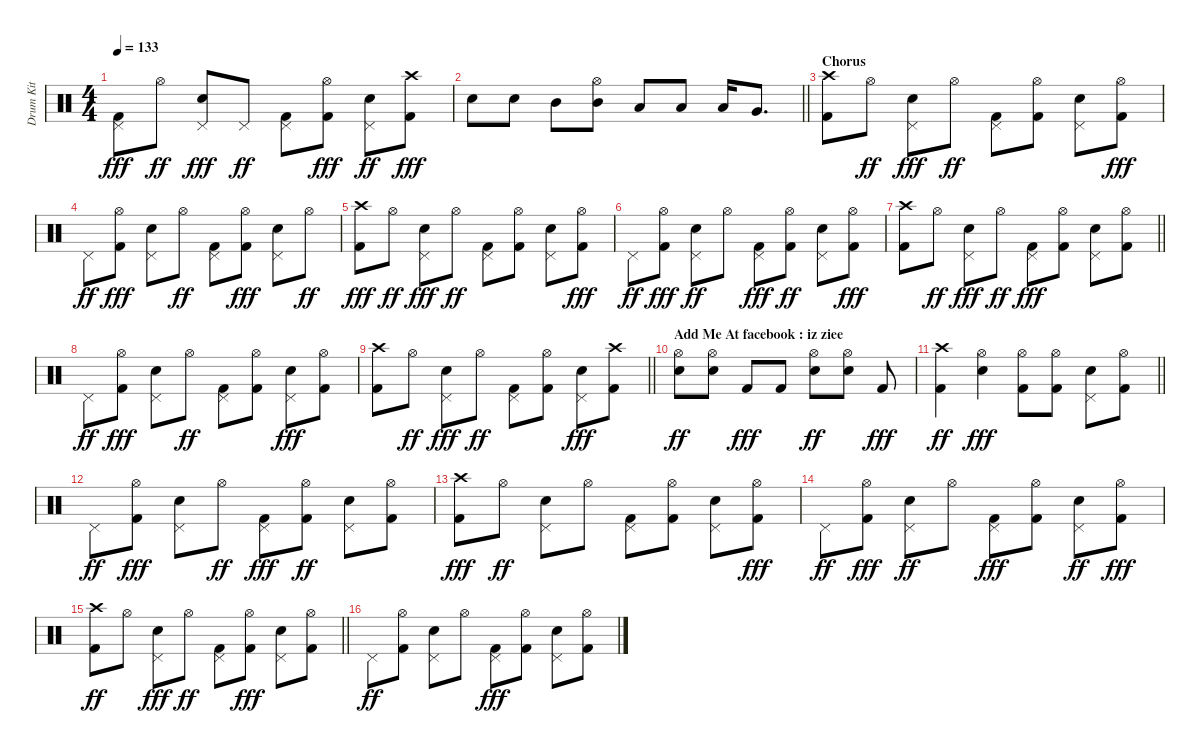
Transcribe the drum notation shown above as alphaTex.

\track ("Drum Kit" "Drum Kit") {instrument percussion}
\staff {score}
\articulation defaults
\ts (4 4)
\tempo 133
\clef neutral
\ks c
("Pedal Hi-Hat (hit)" "Kick (hit) 2").8{dy fff} "Hi-Hat (open)".8{dy ff} ("Pedal Hi-Hat (hit)" "Electric Snare (hit)").8{dy fff} "Pedal Hi-Hat (hit)".8{dy ff} ("Kick (hit) 2" "Pedal Hi-Hat (hit)").8 ("Hi-Hat (open)" "Kick (hit) 2").8{dy fff} ("Electric Snare (hit)" "Pedal Hi-Hat (hit)").8{dy ff} ("Crash high (hit)" "Kick (hit) 2").8{dy fff} |
\barLineRight lightlight "Electric Snare (hit)".8 "Electric Snare (hit)".8 "Mid Tom (hit)".8
("Hi-Hat (open)" "Mid Tom (hit)").8 "Low Tom (hit)".8 "Low Tom (hit)".8 "Low Tom (hit)".16 "Very Low Tom (hit)".8{d} |
\section ("" "Chorus")
("Crash high (hit)" "Kick (hit) 2").8 "Hi-Hat (open)".8{dy ff} ("Pedal Hi-Hat (hit)" "Electric Snare (hit)").8{dy fff} "Hi-Hat (open)".8{dy ff} ("Kick (hit) 2" "Pedal Hi-Hat (hit)").8 ("Kick (hit) 2" "Hi-Hat (open)").8 ("Electric Snare (hit)" "Pedal Hi-Hat (hit)").8 ("Hi-Hat (open)" "Kick (hit) 2").8{dy fff} |
"Pedal Hi-Hat (hit)".8{dy ff} ("Hi-Hat (open)" "Kick (hit) 2").8{dy fff} ("Pedal Hi-Hat (hit)" "Electric Snare (hit)").8 "Hi-Hat (open)".8{dy ff} ("Kick (hit) 2" "Pedal Hi-Hat (hit)").8 ("Hi-Hat (open)" "Kick (hit) 2").8{dy fff} ("Pedal Hi-Hat (hit)" "Electric Snare (hit)").8 "Hi-Hat (open)".8{dy ff} |
("Crash high (hit)" "Kick (hit) 2").8{dy fff} "Hi-Hat (open)".8{dy ff} ("Pedal Hi-Hat (hit)" "Electric Snare (hit)").8{dy fff} "Hi-Hat (open)".8{dy ff} ("Kick (hit) 2" "Pedal Hi-Hat (hit)").8 ("Kick (hit) 2" "Hi-Hat (open)").8 ("Electric Snare (hit)" "Pedal Hi-Hat (hit)").8 ("Hi-Hat (open)" "Kick (hit) 2").8{dy fff} |
"Pedal Hi-Hat (hit)".8{dy ff} ("Hi-Hat (open)" "Kick (hit) 2").8{dy fff} ("Electric Snare (hit)" "Pedal Hi-Hat (hit)").8{dy ff} "Hi-Hat (open)".8 ("Pedal Hi-Hat (hit)" "Kick (hit) 2").8{dy fff} ("Kick (hit) 2" "Hi-Hat (open)").8{dy ff} ("Electric Snare (hit)" "Pedal Hi-Hat (hit)").8 ("Hi-Hat (open)" "Kick (hit) 2").8{dy fff} |
\barLineRight lightlight
("Crash high (hit)" "Kick (hit) 2").8 "Hi-Hat (open)".8{dy ff} ("Pedal Hi-Hat (hit)" "Electric Snare (hit)").8{dy fff} "Hi-Hat (open)".8{dy ff} ("Pedal Hi-Hat (hit)" "Kick (hit) 2").8{dy fff} ("Hi-Hat (open)" "Kick (hit) 2").8 ("Pedal Hi-Hat (hit)" "Electric Snare (hit)").8 ("Hi-Hat (open)" "Kick (hit) 2").8 |
"Pedal Hi-Hat (hit)".8{dy ff} ("Hi-Hat (open)" "Kick (hit) 2").8{dy fff} ("Pedal Hi-Hat (hit)" "Electric Snare (hit)").8 "Hi-Hat (open)".8{dy ff} ("Kick (hit) 2" "Pedal Hi-Hat (hit)").8 ("Kick (hit) 2" "Hi-Hat (open)").8 ("Pedal Hi-Hat (hit)" "Electric Snare (hit)").8{dy fff} ("Hi-Hat (open)" "Kick (hit) 2").8 |
\barLineRight lightlight
("Crash high (hit)" "Kick (hit) 2").8 "Hi-Hat (open)".8{dy ff} ("Pedal Hi-Hat (hit)" "Electric Snare (hit)").8{dy fff} "Hi-Hat (open)".8{dy ff} ("Kick (hit) 2" "Pedal Hi-Hat (hit)").8 ("Kick (hit) 2" "Hi-Hat (open)").8 ("Pedal Hi-Hat (hit)" "Electric Snare (hit)").8{dy fff} ("Crash high (hit)" "Kick (hit) 2").8 |
\section ("" "Add Me At facebook : iz ziee")
("Electric Snare (hit)" "Hi-Hat (open)").8{dy ff} ("Electric Snare (hit)" "Hi-Hat (open)").8 "Kick (hit) 2".8{dy fff} "Kick (hit) 2".8 ("Electric Snare (hit)" "Hi-Hat (open)").8{dy ff} ("Electric Snare (hit)" "Hi-Hat (open)").8 "Kick (hit) 2".8{dy fff} |
\barLineRight lightlight
("Kick (hit) 2" "Crash high (hit)").4{dy ff} ("Hi-Hat (open)" "Electric Snare (hit)").4{dy fff} ("Hi-Hat (open)" "Kick (hit) 2").8 ("Hi-Hat (open)" "Kick (hit) 2").8 ("Pedal Hi-Hat (hit)" "Electric Snare (hit)").8 ("Hi-Hat (open)" "Kick (hit) 2").8 |
"Pedal Hi-Hat (hit)".8{dy ff} ("Hi-Hat (open)" "Kick (hit) 2").8{dy fff} ("Pedal Hi-Hat (hit)" "Electric Snare (hit)").8 "Hi-Hat (open)".8{dy ff} ("Pedal Hi-Hat (hit)" "Kick (hit) 2").8{dy fff} ("Kick (hit) 2" "Hi-Hat (open)").8{dy ff} ("Electric Snare (hit)" "Pedal Hi-Hat (hit)").8 ("Kick (hit) 2" "Hi-Hat (open)").8 |
("Crash high (hit)" "Kick (hit) 2").8{dy fff} "Hi-Hat (open)".8{dy ff} ("Electric Snare (hit)" "Pedal Hi-Hat (hit)").8 "Hi-Hat (open)".8 ("Kick (hit) 2" "Pedal Hi-Hat (hit)").8 ("Kick (hit) 2" "Hi-Hat (open)").8 ("Electric Snare (hit)" "Pedal Hi-Hat (hit)").8 ("Hi-Hat (open)" "Kick (hit) 2").8{dy fff} |
"Pedal Hi-Hat (hit)".8{dy ff} ("Hi-Hat (open)" "Kick (hit) 2").8{dy fff} ("Electric Snare (hit)" "Pedal Hi-Hat (hit)").8{dy ff} "Hi-Hat (open)".8 ("Pedal Hi-Hat (hit)" "Kick (hit) 2").8{dy fff} ("Hi-Hat (open)" "Kick (hit) 2").8 ("Electric Snare (hit)" "Pedal Hi-Hat (hit)").8{dy ff} ("Hi-Hat (open)" "Kick (hit) 2").8{dy fff} |
\barLineRight lightlight
("Kick (hit) 2" "Crash high (hit)").8{dy ff} "Hi-Hat (open)".8 ("Pedal Hi-Hat (hit)" "Electric Snare (hit)").8{dy fff} "Hi-Hat (open)".8{dy ff} ("Kick (hit) 2" "Pedal Hi-Hat (hit)").8 ("Hi-Hat (open)" "Kick (hit) 2").8{dy fff} ("Pedal Hi-Hat (hit)" "Electric Snare (hit)").8 ("Hi-Hat (open)" "Kick (hit) 2").8 |
"Pedal Hi-Hat (hit)".8{dy ff} ("Kick (hit) 2" "Hi-Hat (open)").8 ("Electric Snare (hit)" "Pedal Hi-Hat (hit)").8 "Hi-Hat (open)".8 ("Pedal Hi-Hat (hit)" "Kick (hit) 2").8{dy fff} ("Hi-Hat (open)" "Kick (hit) 2").8 ("Pedal Hi-Hat (hit)" "Electric Snare (hit)").8 ("Hi-Hat (open)" "Kick (hit) 2").8
